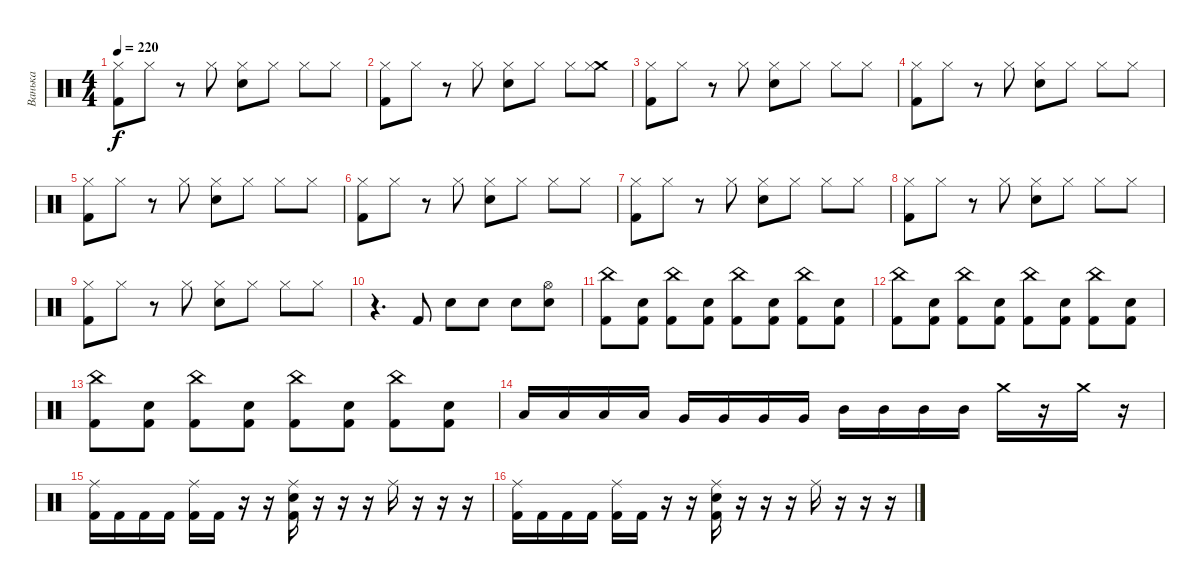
\track ("Ванька" "Ванька") {instrument percussion}
\staff {score}
\articulation defaults
\ts (4 4)
\tempo 220
\clef neutral
\ks c
("Hi-Hat (closed)" "Kick (hit) 2").8{dy f} "Hi-Hat (closed)".8 r.8 "Hi-Hat (closed)".8 ("Hi-Hat (closed)" "Snare (hit) 2").8 "Hi-Hat (closed)".8 "Hi-Hat (closed)".8 "Hi-Hat (closed)".8 |
("Hi-Hat (closed)" "Kick (hit) 2").8 "Hi-Hat (closed)".8 r.8 "Hi-Hat (closed)".8 ("Hi-Hat (closed)" "Snare (hit) 2").8 "Hi-Hat (closed)".8 "Hi-Hat (closed)".8 ("Crash medium (hit)" "Hi-Hat (closed)").8 |
("Hi-Hat (closed)" "Kick (hit) 2").8 "Hi-Hat (closed)".8 r.8 "Hi-Hat (closed)".8 ("Hi-Hat (closed)" "Snare (hit) 2").8 "Hi-Hat (closed)".8 "Hi-Hat (closed)".8 "Hi-Hat (closed)".8 |
("Hi-Hat (closed)" "Kick (hit) 2").8 "Hi-Hat (closed)".8 r.8 "Hi-Hat (closed)".8 ("Hi-Hat (closed)" "Snare (hit) 2").8 "Hi-Hat (closed)".8 "Hi-Hat (closed)".8 "Hi-Hat (closed)".8 |
("Hi-Hat (closed)" "Kick (hit) 2").8 "Hi-Hat (closed)".8 r.8 "Hi-Hat (closed)".8 ("Hi-Hat (closed)" "Snare (hit) 2").8 "Hi-Hat (closed)".8 "Hi-Hat (closed)".8 "Hi-Hat (closed)".8 |
("Hi-Hat (closed)" "Kick (hit) 2").8 "Hi-Hat (closed)".8 r.8 "Hi-Hat (closed)".8 ("Hi-Hat (closed)" "Snare (hit) 2").8 "Hi-Hat (closed)".8 "Hi-Hat (closed)".8 "Hi-Hat (closed)".8 |
("Hi-Hat (closed)" "Kick (hit) 2").8 "Hi-Hat (closed)".8 r.8 "Hi-Hat (closed)".8 ("Hi-Hat (closed)" "Snare (hit) 2").8 "Hi-Hat (closed)".8 "Hi-Hat (closed)".8 "Hi-Hat (closed)".8 |
("Hi-Hat (closed)" "Kick (hit) 2").8 "Hi-Hat (closed)".8 r.8 "Hi-Hat (closed)".8 ("Hi-Hat (closed)" "Snare (hit) 2").8 "Hi-Hat (closed)".8 "Hi-Hat (closed)".8 "Hi-Hat (closed)".8 |
("Hi-Hat (closed)" "Kick (hit) 2").8 "Hi-Hat (closed)".8 r.8 "Hi-Hat (closed)".8 ("Hi-Hat (closed)" "Snare (hit) 2").8 "Hi-Hat (closed)".8 "Hi-Hat (closed)".8 "Hi-Hat (closed)".8 |
r.4{d} "Kick (hit) 2".8 "Snare (hit) 2".8 "Snare (hit) 2".8 "Snare (hit) 2".8 ("Hi-Hat (open)" "Snare (hit) 2").8 |
("China (hit)" "Kick (hit) 2").8 ("Snare (hit) 2" "Kick (hit) 2").8 ("China (hit)" "Kick (hit) 2").8 ("Snare (hit) 2" "Kick (hit) 2").8 ("China (hit)" "Kick (hit) 2").8 ("Snare (hit) 2" "Kick (hit) 2").8 ("China (hit)" "Kick (hit) 2").8 ("Snare (hit) 2" "Kick (hit) 2").8 |
("China (hit)" "Kick (hit) 2").8 ("Snare (hit) 2" "Kick (hit) 2").8 ("China (hit)" "Kick (hit) 2").8 ("Snare (hit) 2" "Kick (hit) 2").8 ("China (hit)" "Kick (hit) 2").8 ("Snare (hit) 2" "Kick (hit) 2").8 ("China (hit)" "Kick (hit) 2").8 ("Snare (hit) 2" "Kick (hit) 2").8 |
("China (hit)" "Kick (hit) 2").8 ("Snare (hit) 2" "Kick (hit) 2").8 ("China (hit)" "Kick (hit) 2").8 ("Snare (hit) 2" "Kick (hit) 2").8 ("China (hit)" "Kick (hit) 2").8 ("Snare (hit) 2" "Kick (hit) 2").8 ("China (hit)" "Kick (hit) 2").8 ("Snare (hit) 2" "Kick (hit) 2").8 |
"Low Floor Tom (hit)".16 "Low Floor Tom (hit)".16 "Low Floor Tom (hit)".16 "Low Floor Tom (hit)".16 "Very Low Tom (hit)".16 "Very Low Tom (hit)".16 "Very Low Tom (hit)".16 "Very Low Tom (hit)".16 "Mid Tom (hit)".16 "Mid Tom (hit)".16 "Mid Tom (hit)".16 "Mid Tom (hit)".16 "Crash medium (hit)".16 r.16 "Crash medium (hit)".16 r.16 |
("Ride (middle)" "Kick (hit) 2").16 "Kick (hit) 2".16 "Kick (hit) 2".16 "Kick (hit) 2".16 ("Ride (middle)" "Kick (hit) 2").16 "Kick (hit) 2".16 r.16 r.16 ("Ride (middle)" "Snare (hit) 2" "Kick (hit) 2").16 r.16 r.16 r.16 "Ride (middle)".16 r.16 r.16 r.16 |
("Ride (middle)" "Kick (hit) 2").16 "Kick (hit) 2".16 "Kick (hit) 2".16 "Kick (hit) 2".16 ("Ride (middle)" "Kick (hit) 2").16 "Kick (hit) 2".16 r.16 r.16 ("Ride (middle)" "Snare (hit) 2" "Kick (hit) 2").16 r.16 r.16 r.16 "Ride (middle)".16 r.16 r.16 r.16
